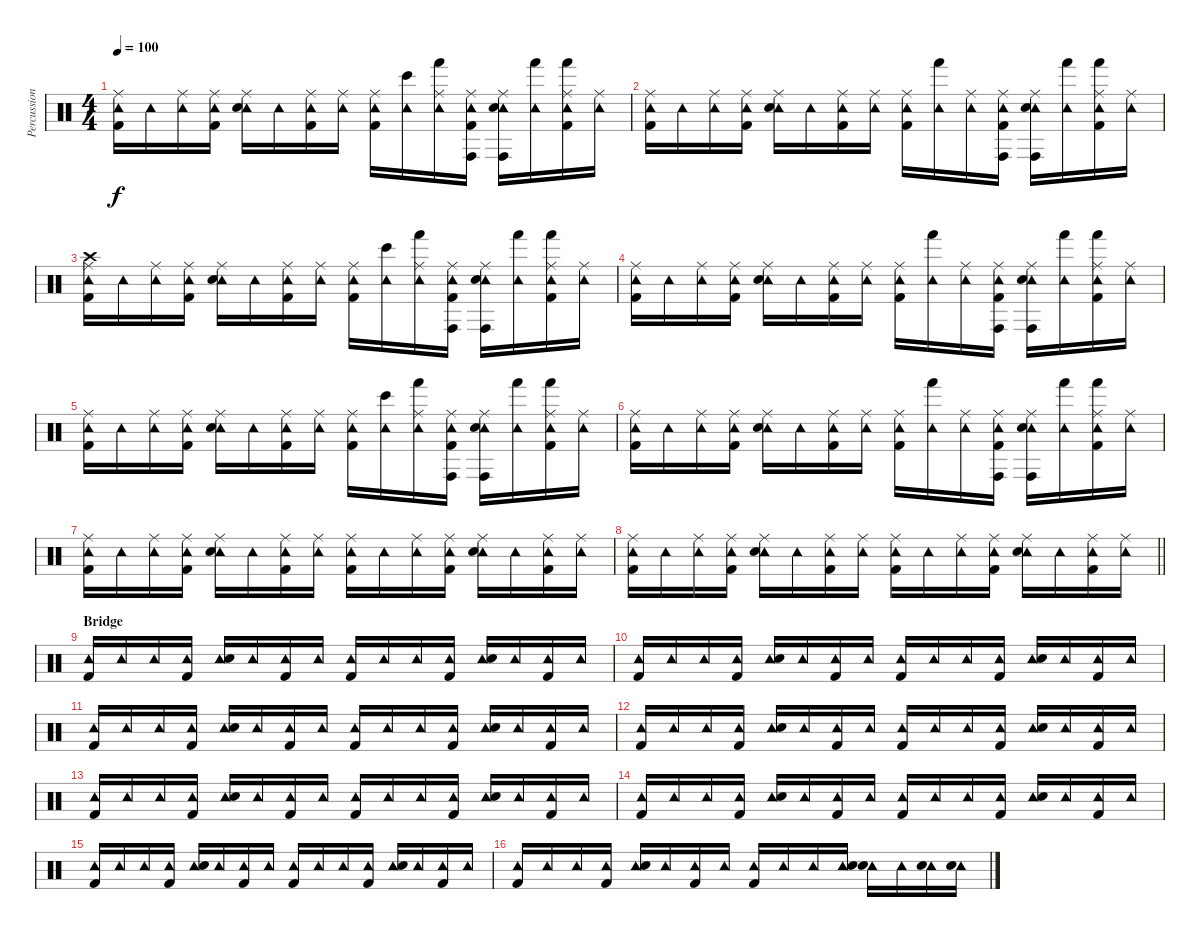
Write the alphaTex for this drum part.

\track ("Percussion" "Percussion") {instrument percussion}
\staff {score}
\articulation defaults
\ts (4 4)
\tempo 100
\clef neutral
\ks c
("Tambourine (hit)" "Ride (middle)" "Kick (hit) 2").16{dy f} "Tambourine (hit)".16 ("Tambourine (hit)" "Ride (middle)").16 ("Tambourine (hit)" "Ride (middle)" "Kick (hit) 2").16 ("Tambourine (hit)" "Ride (middle)" "Snare (hit) 2").16 "Tambourine (hit)".16 ("Tambourine (hit)" "Ride (middle)" "Kick (hit) 2").16 ("Tambourine (hit)" "Ride (middle)").16 ("Tambourine (hit)" "Ride (middle)" "Kick (hit) 2").16 ("Tambourine (hit)" "Bongo High (hit)").16 ("Tambourine (hit)" "Ride (middle)" "Hand (hit)").16 ("Tambourine (hit)" "Ride (middle)" "Conga high (hit)" "Kick (hit) 2").16 ("Tambourine (hit)" "Ride (middle)" "Conga high (hit)" "Snare (hit) 2").16 ("Tambourine (hit)" "Hand (hit)").16 ("Tambourine (hit)" "Ride (middle)" "Hand (hit)" "Kick (hit) 2").16 ("Tambourine (hit)" "Ride (middle)").16 |
("Tambourine (hit)" "Ride (middle)" "Kick (hit) 2").16 "Tambourine (hit)".16 ("Tambourine (hit)" "Ride (middle)").16 ("Tambourine (hit)" "Ride (middle)" "Kick (hit) 2").16 ("Tambourine (hit)" "Ride (middle)" "Snare (hit) 2").16 "Tambourine (hit)".16 ("Tambourine (hit)" "Ride (middle)" "Kick (hit) 2").16 ("Tambourine (hit)" "Ride (middle)").16 ("Tambourine (hit)" "Ride (middle)" "Kick (hit) 2").16 ("Tambourine (hit)" "Hand (hit)").16 ("Tambourine (hit)" "Ride (middle)").16 ("Tambourine (hit)" "Ride (middle)" "Conga high (hit)" "Kick (hit) 2").16 ("Tambourine (hit)" "Ride (middle)" "Conga high (hit)" "Snare (hit) 2").16 ("Tambourine (hit)" "Hand (hit)").16 ("Tambourine (hit)" "Ride (middle)" "Hand (hit)" "Kick (hit) 2").16 ("Tambourine (hit)" "Ride (middle)").16 |
("Tambourine (hit)" "Ride (middle)" "Crash high (hit)" "Kick (hit) 2").16 "Tambourine (hit)".16 ("Tambourine (hit)" "Ride (middle)").16 ("Tambourine (hit)" "Ride (middle)" "Kick (hit) 2").16 ("Tambourine (hit)" "Ride (middle)" "Snare (hit) 2").16 "Tambourine (hit)".16 ("Tambourine (hit)" "Ride (middle)" "Kick (hit) 2").16 ("Tambourine (hit)" "Ride (middle)").16 ("Tambourine (hit)" "Ride (middle)" "Kick (hit) 2").16 ("Tambourine (hit)" "Bongo High (hit)").16 ("Tambourine (hit)" "Ride (middle)" "Hand (hit)").16 ("Tambourine (hit)" "Ride (middle)" "Conga high (hit)" "Kick (hit) 2").16 ("Tambourine (hit)" "Ride (middle)" "Conga high (hit)" "Snare (hit) 2").16 ("Tambourine (hit)" "Hand (hit)").16 ("Tambourine (hit)" "Ride (middle)" "Hand (hit)" "Kick (hit) 2").16 ("Tambourine (hit)" "Ride (middle)").16 |
("Tambourine (hit)" "Ride (middle)" "Kick (hit) 2").16 "Tambourine (hit)".16 ("Tambourine (hit)" "Ride (middle)").16 ("Tambourine (hit)" "Ride (middle)" "Kick (hit) 2").16 ("Tambourine (hit)" "Ride (middle)" "Snare (hit) 2").16 "Tambourine (hit)".16 ("Tambourine (hit)" "Ride (middle)" "Kick (hit) 2").16 ("Tambourine (hit)" "Ride (middle)").16 ("Tambourine (hit)" "Ride (middle)" "Kick (hit) 2").16 ("Tambourine (hit)" "Hand (hit)").16 ("Tambourine (hit)" "Ride (middle)").16 ("Tambourine (hit)" "Ride (middle)" "Conga high (hit)" "Kick (hit) 2").16 ("Tambourine (hit)" "Ride (middle)" "Conga high (hit)" "Snare (hit) 2").16 ("Tambourine (hit)" "Hand (hit)").16 ("Tambourine (hit)" "Ride (middle)" "Hand (hit)" "Kick (hit) 2").16 ("Tambourine (hit)" "Ride (middle)").16 |
("Tambourine (hit)" "Ride (middle)" "Kick (hit) 2").16 "Tambourine (hit)".16 ("Tambourine (hit)" "Ride (middle)").16 ("Tambourine (hit)" "Ride (middle)" "Kick (hit) 2").16 ("Tambourine (hit)" "Ride (middle)" "Snare (hit) 2").16 "Tambourine (hit)".16 ("Tambourine (hit)" "Ride (middle)" "Kick (hit) 2").16 ("Tambourine (hit)" "Ride (middle)").16 ("Tambourine (hit)" "Ride (middle)" "Kick (hit) 2").16 ("Tambourine (hit)" "Bongo High (hit)").16 ("Tambourine (hit)" "Ride (middle)" "Hand (hit)").16 ("Tambourine (hit)" "Ride (middle)" "Conga high (hit)" "Kick (hit) 2").16 ("Tambourine (hit)" "Ride (middle)" "Conga high (hit)" "Snare (hit) 2").16 ("Tambourine (hit)" "Hand (hit)").16 ("Tambourine (hit)" "Ride (middle)" "Hand (hit)" "Kick (hit) 2").16 ("Tambourine (hit)" "Ride (middle)").16 |
("Tambourine (hit)" "Ride (middle)" "Kick (hit) 2").16 "Tambourine (hit)".16 ("Tambourine (hit)" "Ride (middle)").16 ("Tambourine (hit)" "Ride (middle)" "Kick (hit) 2").16 ("Tambourine (hit)" "Ride (middle)" "Snare (hit) 2").16 "Tambourine (hit)".16 ("Tambourine (hit)" "Ride (middle)" "Kick (hit) 2").16 ("Tambourine (hit)" "Ride (middle)").16 ("Tambourine (hit)" "Ride (middle)" "Kick (hit) 2").16 ("Tambourine (hit)" "Hand (hit)").16 ("Tambourine (hit)" "Ride (middle)").16 ("Tambourine (hit)" "Ride (middle)" "Conga high (hit)" "Kick (hit) 2").16 ("Tambourine (hit)" "Ride (middle)" "Conga high (hit)" "Snare (hit) 2").16 ("Tambourine (hit)" "Hand (hit)").16 ("Tambourine (hit)" "Ride (middle)" "Hand (hit)" "Kick (hit) 2").16 ("Tambourine (hit)" "Ride (middle)").16 |
("Tambourine (hit)" "Ride (middle)" "Kick (hit) 2").16 "Tambourine (hit)".16 ("Tambourine (hit)" "Ride (middle)").16 ("Tambourine (hit)" "Ride (middle)" "Kick (hit) 2").16 ("Tambourine (hit)" "Ride (middle)" "Snare (hit) 2").16 "Tambourine (hit)".16 ("Tambourine (hit)" "Ride (middle)" "Kick (hit) 2").16 ("Tambourine (hit)" "Ride (middle)").16 ("Tambourine (hit)" "Ride (middle)" "Kick (hit) 2").16 "Tambourine (hit)".16 ("Tambourine (hit)" "Ride (middle)").16 ("Tambourine (hit)" "Ride (middle)" "Kick (hit) 2").16 ("Tambourine (hit)" "Ride (middle)" "Snare (hit) 2").16 "Tambourine (hit)".16 ("Tambourine (hit)" "Ride (middle)" "Kick (hit) 2").16 ("Tambourine (hit)" "Ride (middle)").16 |
\barLineRight lightlight
("Tambourine (hit)" "Ride (middle)" "Kick (hit) 2").16 "Tambourine (hit)".16 ("Tambourine (hit)" "Ride (middle)").16 ("Tambourine (hit)" "Ride (middle)" "Kick (hit) 2").16 ("Tambourine (hit)" "Ride (middle)" "Snare (hit) 2").16 "Tambourine (hit)".16 ("Tambourine (hit)" "Ride (middle)" "Kick (hit) 2").16 ("Tambourine (hit)" "Ride (middle)").16 ("Tambourine (hit)" "Ride (middle)" "Kick (hit) 2").16 "Tambourine (hit)".16 ("Tambourine (hit)" "Ride (middle)").16 ("Tambourine (hit)" "Ride (middle)" "Kick (hit) 2").16 ("Tambourine (hit)" "Ride (middle)" "Snare (hit) 2").16 "Tambourine (hit)".16 ("Tambourine (hit)" "Ride (middle)" "Kick (hit) 2").16 ("Tambourine (hit)" "Ride (middle)").16 |
\section ("" "Bridge")
("Tambourine (hit)" "Kick (hit) 2").16 "Tambourine (hit)".16 "Tambourine (hit)".16 ("Tambourine (hit)" "Kick (hit) 2").16 ("Tambourine (hit)" "Snare (hit) 2").16 "Tambourine (hit)".16 ("Tambourine (hit)" "Kick (hit) 2").16 "Tambourine (hit)".16 ("Tambourine (hit)" "Kick (hit) 2").16 "Tambourine (hit)".16 "Tambourine (hit)".16 ("Tambourine (hit)" "Kick (hit) 2").16 ("Tambourine (hit)" "Snare (hit) 2").16 "Tambourine (hit)".16 ("Tambourine (hit)" "Kick (hit) 2").16 "Tambourine (hit)".16 |
("Tambourine (hit)" "Kick (hit) 2").16 "Tambourine (hit)".16 "Tambourine (hit)".16 ("Tambourine (hit)" "Kick (hit) 2").16 ("Tambourine (hit)" "Snare (hit) 2").16 "Tambourine (hit)".16 ("Tambourine (hit)" "Kick (hit) 2").16 "Tambourine (hit)".16 ("Tambourine (hit)" "Kick (hit) 2").16 "Tambourine (hit)".16 "Tambourine (hit)".16 ("Tambourine (hit)" "Kick (hit) 2").16 ("Tambourine (hit)" "Snare (hit) 2").16 "Tambourine (hit)".16 ("Tambourine (hit)" "Kick (hit) 2").16 "Tambourine (hit)".16 |
("Tambourine (hit)" "Kick (hit) 2").16 "Tambourine (hit)".16 "Tambourine (hit)".16 ("Tambourine (hit)" "Kick (hit) 2").16 ("Tambourine (hit)" "Snare (hit) 2").16 "Tambourine (hit)".16 ("Tambourine (hit)" "Kick (hit) 2").16 "Tambourine (hit)".16 ("Tambourine (hit)" "Kick (hit) 2").16 "Tambourine (hit)".16 "Tambourine (hit)".16 ("Tambourine (hit)" "Kick (hit) 2").16 ("Tambourine (hit)" "Snare (hit) 2").16 "Tambourine (hit)".16 ("Tambourine (hit)" "Kick (hit) 2").16 "Tambourine (hit)".16 |
("Tambourine (hit)" "Kick (hit) 2").16 "Tambourine (hit)".16 "Tambourine (hit)".16 ("Tambourine (hit)" "Kick (hit) 2").16 ("Tambourine (hit)" "Snare (hit) 2").16 "Tambourine (hit)".16 ("Tambourine (hit)" "Kick (hit) 2").16 "Tambourine (hit)".16 ("Tambourine (hit)" "Kick (hit) 2").16 "Tambourine (hit)".16 "Tambourine (hit)".16 ("Tambourine (hit)" "Kick (hit) 2").16 ("Tambourine (hit)" "Snare (hit) 2").16 "Tambourine (hit)".16 ("Tambourine (hit)" "Kick (hit) 2").16 "Tambourine (hit)".16 |
("Tambourine (hit)" "Kick (hit) 2").16 "Tambourine (hit)".16 "Tambourine (hit)".16 ("Tambourine (hit)" "Kick (hit) 2").16 ("Tambourine (hit)" "Snare (hit) 2").16 "Tambourine (hit)".16 ("Tambourine (hit)" "Kick (hit) 2").16 "Tambourine (hit)".16 ("Tambourine (hit)" "Kick (hit) 2").16 "Tambourine (hit)".16 "Tambourine (hit)".16 ("Tambourine (hit)" "Kick (hit) 2").16 ("Tambourine (hit)" "Snare (hit) 2").16 "Tambourine (hit)".16 ("Tambourine (hit)" "Kick (hit) 2").16 "Tambourine (hit)".16 |
("Tambourine (hit)" "Kick (hit) 2").16 "Tambourine (hit)".16 "Tambourine (hit)".16 ("Tambourine (hit)" "Kick (hit) 2").16 ("Tambourine (hit)" "Snare (hit) 2").16 "Tambourine (hit)".16 ("Tambourine (hit)" "Kick (hit) 2").16 "Tambourine (hit)".16 ("Tambourine (hit)" "Kick (hit) 2").16 "Tambourine (hit)".16 "Tambourine (hit)".16 ("Tambourine (hit)" "Kick (hit) 2").16 ("Tambourine (hit)" "Snare (hit) 2").16 "Tambourine (hit)".16 ("Tambourine (hit)" "Kick (hit) 2").16 "Tambourine (hit)".16 |
("Tambourine (hit)" "Kick (hit) 2").16 "Tambourine (hit)".16 "Tambourine (hit)".16 ("Tambourine (hit)" "Kick (hit) 2").16 ("Tambourine (hit)" "Snare (hit) 2").16 "Tambourine (hit)".16 ("Tambourine (hit)" "Kick (hit) 2").16 "Tambourine (hit)".16 ("Tambourine (hit)" "Kick (hit) 2").16 "Tambourine (hit)".16 "Tambourine (hit)".16 ("Tambourine (hit)" "Kick (hit) 2").16 ("Tambourine (hit)" "Snare (hit) 2").16 "Tambourine (hit)".16 ("Tambourine (hit)" "Kick (hit) 2").16 "Tambourine (hit)".16 |
("Tambourine (hit)" "Kick (hit) 2").16 "Tambourine (hit)".16 "Tambourine (hit)".16 ("Tambourine (hit)" "Kick (hit) 2").16 ("Tambourine (hit)" "Snare (hit) 2").16 "Tambourine (hit)".16 ("Tambourine (hit)" "Kick (hit) 2").16 "Tambourine (hit)".16 ("Tambourine (hit)" "Kick (hit) 2").16 "Tambourine (hit)".16 "Tambourine (hit)".16 ("Tambourine (hit)" "Snare (hit) 2").16 ("Tambourine (hit)" "Snare (hit) 2").16 "Tambourine (hit)".16 ("Tambourine (hit)" "Snare (hit) 2").16 ("Tambourine (hit)" "Snare (hit) 2").16
